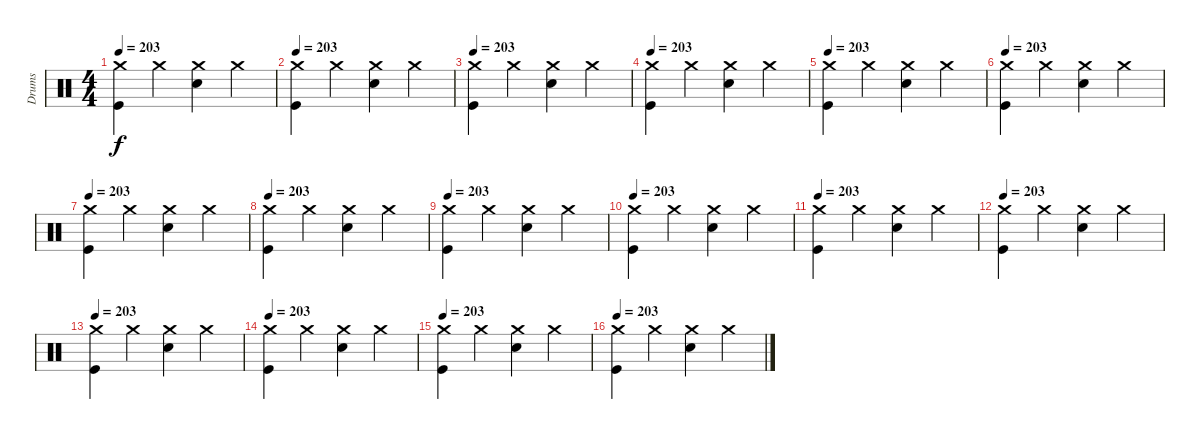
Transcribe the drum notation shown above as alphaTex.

\track ("Drums" "Drums") {instrument percussion}
\staff {score}
\articulation defaults
\ts (4 4)
\tempo 203
\clef neutral
\ks c
("Crash medium (hit)" "Kick (hit)").4{dy f} "Crash medium (hit)".4 ("Electric Snare (hit)" "Crash medium (hit)").4 "Crash medium (hit)".4 |
\tempo 203
("Crash medium (hit)" "Kick (hit)").4 "Crash medium (hit)".4 ("Electric Snare (hit)" "Crash medium (hit)").4 "Crash medium (hit)".4 |
\tempo 203
("Crash medium (hit)" "Kick (hit)").4 "Crash medium (hit)".4 ("Electric Snare (hit)" "Crash medium (hit)").4 "Crash medium (hit)".4 |
\tempo 203
("Crash medium (hit)" "Kick (hit)").4 "Crash medium (hit)".4 ("Electric Snare (hit)" "Crash medium (hit)").4 "Crash medium (hit)".4 |
\tempo 203
("Crash medium (hit)" "Kick (hit)").4 "Crash medium (hit)".4 ("Electric Snare (hit)" "Crash medium (hit)").4 "Crash medium (hit)".4 |
\tempo 203
("Crash medium (hit)" "Kick (hit)").4 "Crash medium (hit)".4 ("Electric Snare (hit)" "Crash medium (hit)").4 "Crash medium (hit)".4 |
\tempo 203
("Crash medium (hit)" "Kick (hit)").4 "Crash medium (hit)".4 ("Electric Snare (hit)" "Crash medium (hit)").4 "Crash medium (hit)".4 |
\tempo 203
("Crash medium (hit)" "Kick (hit)").4 "Crash medium (hit)".4 ("Electric Snare (hit)" "Crash medium (hit)").4 "Crash medium (hit)".4 |
\tempo 203
("Crash medium (hit)" "Kick (hit)").4 "Crash medium (hit)".4 ("Electric Snare (hit)" "Crash medium (hit)").4 "Crash medium (hit)".4 |
\tempo 203
("Crash medium (hit)" "Kick (hit)").4 "Crash medium (hit)".4 ("Electric Snare (hit)" "Crash medium (hit)").4 "Crash medium (hit)".4 |
\tempo 203
("Crash medium (hit)" "Kick (hit)").4 "Crash medium (hit)".4 ("Electric Snare (hit)" "Crash medium (hit)").4 "Crash medium (hit)".4 |
\tempo 203
("Crash medium (hit)" "Kick (hit)").4 "Crash medium (hit)".4 ("Electric Snare (hit)" "Crash medium (hit)").4 "Crash medium (hit)".4 |
\tempo 203
("Crash medium (hit)" "Kick (hit)").4 "Crash medium (hit)".4 ("Electric Snare (hit)" "Crash medium (hit)").4 "Crash medium (hit)".4 |
\tempo 203
("Crash medium (hit)" "Kick (hit)").4 "Crash medium (hit)".4 ("Electric Snare (hit)" "Crash medium (hit)").4 "Crash medium (hit)".4 |
\tempo 203
("Crash medium (hit)" "Kick (hit)").4 "Crash medium (hit)".4 ("Electric Snare (hit)" "Crash medium (hit)").4 "Crash medium (hit)".4 |
\tempo 203
("Crash medium (hit)" "Kick (hit)").4 "Crash medium (hit)".4 ("Electric Snare (hit)" "Crash medium (hit)").4 "Crash medium (hit)".4
